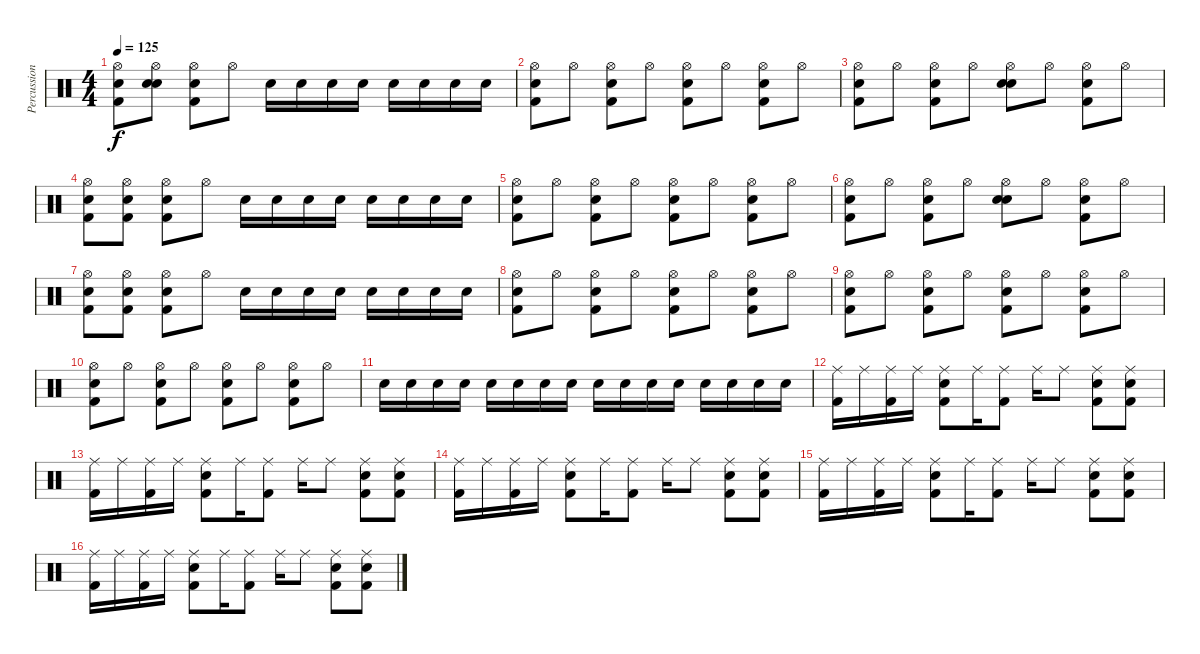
\track ("Percussions" "Percussion") {instrument percussion}
\staff {score}
\articulation defaults
\ts (4 4)
\tempo 125
\clef neutral
\ks c
("Hi-Hat (open)" "Snare (hit) 2" "Kick (hit) 2").8{dy f} ("Hi-Hat (open)" "Snare (hit)" "Snare (hit)").8 ("Hi-Hat (open)" "Snare (hit) 2" "Kick (hit) 2").8 "Hi-Hat (open)".8 "Snare (hit) 2".16 "Snare (hit) 2".16 "Snare (hit) 2".16 "Snare (hit) 2".16 "Snare (hit) 2".16 "Snare (hit) 2".16 "Snare (hit) 2".16 "Snare (hit) 2".16 |
("Hi-Hat (open)" "Snare (hit) 2" "Kick (hit) 2").8 "Hi-Hat (open)".8 ("Hi-Hat (open)" "Snare (hit) 2" "Kick (hit) 2").8 "Hi-Hat (open)".8 ("Hi-Hat (open)" "Snare (hit) 2" "Kick (hit) 2").8 "Hi-Hat (open)".8 ("Hi-Hat (open)" "Snare (hit) 2" "Kick (hit) 2").8 "Hi-Hat (open)".8 |
("Hi-Hat (open)" "Snare (hit) 2" "Kick (hit) 2").8 "Hi-Hat (open)".8 ("Hi-Hat (open)" "Snare (hit) 2" "Kick (hit) 2").8 "Hi-Hat (open)".8 ("Hi-Hat (open)" "Snare (hit) 2" "Snare (hit)").8 "Hi-Hat (open)".8 ("Hi-Hat (open)" "Snare (hit) 2" "Kick (hit) 2").8 "Hi-Hat (open)".8 |
("Hi-Hat (open)" "Snare (hit) 2" "Kick (hit) 2").8 ("Hi-Hat (open)" "Snare (hit)" "Kick (hit) 2").8 ("Hi-Hat (open)" "Snare (hit) 2" "Kick (hit) 2").8 "Hi-Hat (open)".8 "Snare (hit) 2".16 "Snare (hit) 2".16 "Snare (hit) 2".16 "Snare (hit) 2".16 "Snare (hit) 2".16 "Snare (hit) 2".16 "Snare (hit) 2".16 "Snare (hit) 2".16 |
("Hi-Hat (open)" "Snare (hit) 2" "Kick (hit) 2").8 "Hi-Hat (open)".8 ("Hi-Hat (open)" "Snare (hit) 2" "Kick (hit) 2").8 "Hi-Hat (open)".8 ("Hi-Hat (open)" "Snare (hit) 2" "Kick (hit) 2").8 "Hi-Hat (open)".8 ("Hi-Hat (open)" "Snare (hit) 2" "Kick (hit) 2").8 "Hi-Hat (open)".8 |
("Hi-Hat (open)" "Snare (hit) 2" "Kick (hit) 2").8 "Hi-Hat (open)".8 ("Hi-Hat (open)" "Snare (hit) 2" "Kick (hit) 2").8 "Hi-Hat (open)".8 ("Hi-Hat (open)" "Snare (hit) 2" "Snare (hit)").8 "Hi-Hat (open)".8 ("Hi-Hat (open)" "Snare (hit) 2" "Kick (hit) 2").8 "Hi-Hat (open)".8 |
("Hi-Hat (open)" "Snare (hit) 2" "Kick (hit) 2").8 ("Hi-Hat (open)" "Snare (hit)" "Kick (hit) 2").8 ("Hi-Hat (open)" "Snare (hit) 2" "Kick (hit) 2").8 "Hi-Hat (open)".8 "Snare (hit) 2".16 "Snare (hit) 2".16 "Snare (hit) 2".16 "Snare (hit) 2".16 "Snare (hit) 2".16 "Snare (hit) 2".16 "Snare (hit) 2".16 "Snare (hit) 2".16 |
("Hi-Hat (open)" "Snare (hit) 2" "Kick (hit) 2").8 "Hi-Hat (open)".8 ("Hi-Hat (open)" "Snare (hit) 2" "Kick (hit) 2").8 "Hi-Hat (open)".8 ("Hi-Hat (open)" "Snare (hit) 2" "Kick (hit) 2").8 "Hi-Hat (open)".8 ("Hi-Hat (open)" "Snare (hit) 2" "Kick (hit) 2").8 "Hi-Hat (open)".8 |
("Hi-Hat (open)" "Snare (hit) 2" "Kick (hit) 2").8 "Hi-Hat (open)".8 ("Hi-Hat (open)" "Snare (hit) 2" "Kick (hit) 2").8 "Hi-Hat (open)".8 ("Hi-Hat (open)" "Snare (hit) 2" "Kick (hit) 2").8 "Hi-Hat (open)".8 ("Hi-Hat (open)" "Snare (hit) 2" "Kick (hit) 2").8 "Hi-Hat (open)".8 |
("Hi-Hat (open)" "Snare (hit) 2" "Kick (hit) 2").8 "Hi-Hat (open)".8 ("Hi-Hat (open)" "Snare (hit) 2" "Kick (hit) 2").8 "Hi-Hat (open)".8 ("Hi-Hat (open)" "Snare (hit) 2" "Kick (hit) 2").8 "Hi-Hat (open)".8 ("Hi-Hat (open)" "Snare (hit) 2" "Kick (hit) 2").8 "Hi-Hat (open)".8 |
"Snare (hit) 2".16 "Snare (hit) 2".16 "Snare (hit) 2".16 "Snare (hit) 2".16 "Snare (hit) 2".16 "Snare (hit) 2".16 "Snare (hit) 2".16 "Snare (hit) 2".16 "Snare (hit) 2".16 "Snare (hit) 2".16 "Snare (hit) 2".16 "Snare (hit) 2".16 "Snare (hit) 2".16 "Snare (hit) 2".16 "Snare (hit) 2".16 "Snare (hit) 2".16 |
("Ride (middle)" "Kick (hit) 2").16 "Ride (middle)".16 ("Ride (middle)" "Kick (hit) 2").16 "Ride (middle)".16 ("Ride (middle)" "Snare (hit) 2" "Kick (hit) 2").8 "Ride (middle)".16 ("Ride (middle)" "Kick (hit) 2").8 "Ride (middle)".16 "Ride (middle)".8 ("Ride (middle)" "Snare (hit) 2" "Kick (hit) 2").8 ("Ride (middle)" "Snare (hit) 2" "Kick (hit) 2").8 |
("Ride (middle)" "Kick (hit) 2").16 "Ride (middle)".16 ("Ride (middle)" "Kick (hit) 2").16 "Ride (middle)".16 ("Ride (middle)" "Snare (hit) 2" "Kick (hit) 2").8 "Ride (middle)".16 ("Ride (middle)" "Kick (hit) 2").8 "Ride (middle)".16 "Ride (middle)".8 ("Ride (middle)" "Snare (hit) 2" "Kick (hit) 2").8 ("Ride (middle)" "Snare (hit) 2" "Kick (hit) 2").8 |
("Ride (middle)" "Kick (hit) 2").16 "Ride (middle)".16 ("Ride (middle)" "Kick (hit) 2").16 "Ride (middle)".16 ("Ride (middle)" "Snare (hit) 2" "Kick (hit) 2").8 "Ride (middle)".16 ("Ride (middle)" "Kick (hit) 2").8 "Ride (middle)".16 "Ride (middle)".8 ("Ride (middle)" "Snare (hit) 2" "Kick (hit) 2").8 ("Ride (middle)" "Snare (hit) 2" "Kick (hit) 2").8 |
("Ride (middle)" "Kick (hit) 2").16 "Ride (middle)".16 ("Ride (middle)" "Kick (hit) 2").16 "Ride (middle)".16 ("Ride (middle)" "Snare (hit) 2" "Kick (hit) 2").8 "Ride (middle)".16 ("Ride (middle)" "Kick (hit) 2").8 "Ride (middle)".16 "Ride (middle)".8 ("Ride (middle)" "Snare (hit) 2" "Kick (hit) 2").8 ("Ride (middle)" "Snare (hit) 2" "Kick (hit) 2").8 |
("Ride (middle)" "Kick (hit) 2").16 "Ride (middle)".16 ("Ride (middle)" "Kick (hit) 2").16 "Ride (middle)".16 ("Ride (middle)" "Snare (hit) 2" "Kick (hit) 2").8 "Ride (middle)".16 ("Ride (middle)" "Kick (hit) 2").8 "Ride (middle)".16 "Ride (middle)".8 ("Ride (middle)" "Snare (hit) 2" "Kick (hit) 2").8 ("Ride (middle)" "Snare (hit) 2" "Kick (hit) 2").8
